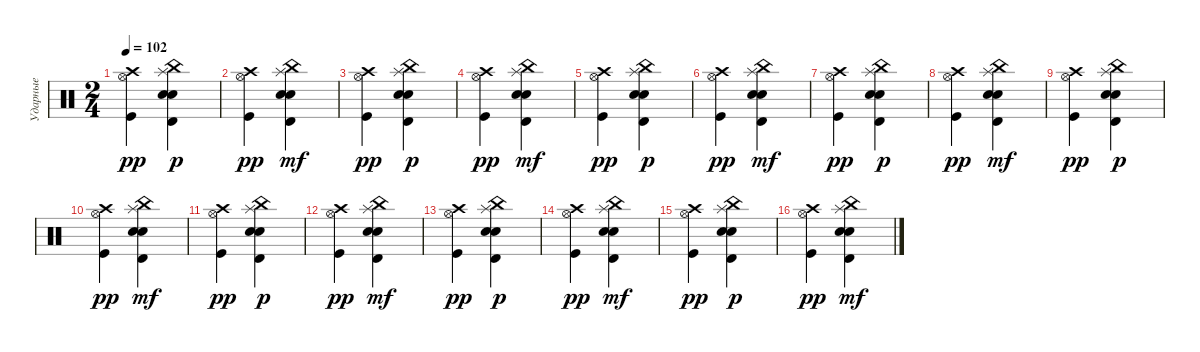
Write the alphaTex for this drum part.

\track ("Ударные" "Ударные") {instrument percussion}
\staff {score}
\articulation defaults
\ts (2 4)
\tempo 102
\clef neutral
\ks c
("Kick (hit)" "Hi-Hat (open)" "Crash high (hit)").4{dy pp} ("Splash (hit)" "China (hit)" "Snare (hit) 2" "Electric Snare (hit)" "Timbale high (hit)").4{dy p} |
("Kick (hit)" "Hi-Hat (open)" "Crash high (hit)").4{dy pp} ("Splash (hit)" "China (hit)" "Snare (hit) 2" "Timbale high (hit)" "Electric Snare (hit)").4{dy mf} |
("Kick (hit)" "Hi-Hat (open)" "Crash high (hit)").4{dy pp} ("Splash (hit)" "China (hit)" "Snare (hit) 2" "Electric Snare (hit)" "Timbale high (hit)").4{dy p} |
("Kick (hit)" "Hi-Hat (open)" "Crash high (hit)").4{dy pp} ("Splash (hit)" "China (hit)" "Snare (hit) 2" "Timbale high (hit)" "Electric Snare (hit)").4{dy mf} |
("Kick (hit)" "Hi-Hat (open)" "Crash high (hit)").4{dy pp} ("Splash (hit)" "China (hit)" "Snare (hit) 2" "Electric Snare (hit)" "Timbale high (hit)").4{dy p} |
("Kick (hit)" "Hi-Hat (open)" "Crash high (hit)").4{dy pp} ("Splash (hit)" "China (hit)" "Snare (hit) 2" "Timbale high (hit)" "Electric Snare (hit)").4{dy mf} |
("Kick (hit)" "Hi-Hat (open)" "Crash high (hit)").4{dy pp} ("Splash (hit)" "China (hit)" "Snare (hit) 2" "Electric Snare (hit)" "Timbale high (hit)").4{dy p} |
("Kick (hit)" "Hi-Hat (open)" "Crash high (hit)").4{dy pp} ("Splash (hit)" "China (hit)" "Snare (hit) 2" "Timbale high (hit)" "Electric Snare (hit)").4{dy mf} |
("Kick (hit)" "Hi-Hat (open)" "Crash high (hit)").4{dy pp} ("Splash (hit)" "China (hit)" "Snare (hit) 2" "Electric Snare (hit)" "Timbale high (hit)").4{dy p} |
("Kick (hit)" "Hi-Hat (open)" "Crash high (hit)").4{dy pp} ("Splash (hit)" "China (hit)" "Snare (hit) 2" "Timbale high (hit)" "Electric Snare (hit)").4{dy mf} |
("Kick (hit)" "Hi-Hat (open)" "Crash high (hit)").4{dy pp} ("Splash (hit)" "China (hit)" "Snare (hit) 2" "Electric Snare (hit)" "Timbale high (hit)").4{dy p} |
("Kick (hit)" "Hi-Hat (open)" "Crash high (hit)").4{dy pp} ("Splash (hit)" "China (hit)" "Snare (hit) 2" "Timbale high (hit)" "Electric Snare (hit)").4{dy mf} |
("Kick (hit)" "Hi-Hat (open)" "Crash high (hit)").4{dy pp} ("Splash (hit)" "China (hit)" "Snare (hit) 2" "Electric Snare (hit)" "Timbale high (hit)").4{dy p} |
("Kick (hit)" "Hi-Hat (open)" "Crash high (hit)").4{dy pp} ("Splash (hit)" "China (hit)" "Snare (hit) 2" "Timbale high (hit)" "Electric Snare (hit)").4{dy mf} |
("Kick (hit)" "Hi-Hat (open)" "Crash high (hit)").4{dy pp} ("Splash (hit)" "China (hit)" "Snare (hit) 2" "Electric Snare (hit)" "Timbale high (hit)").4{dy p} |
("Kick (hit)" "Hi-Hat (open)" "Crash high (hit)").4{dy pp} ("Splash (hit)" "China (hit)" "Snare (hit) 2" "Timbale high (hit)" "Electric Snare (hit)").4{dy mf}
